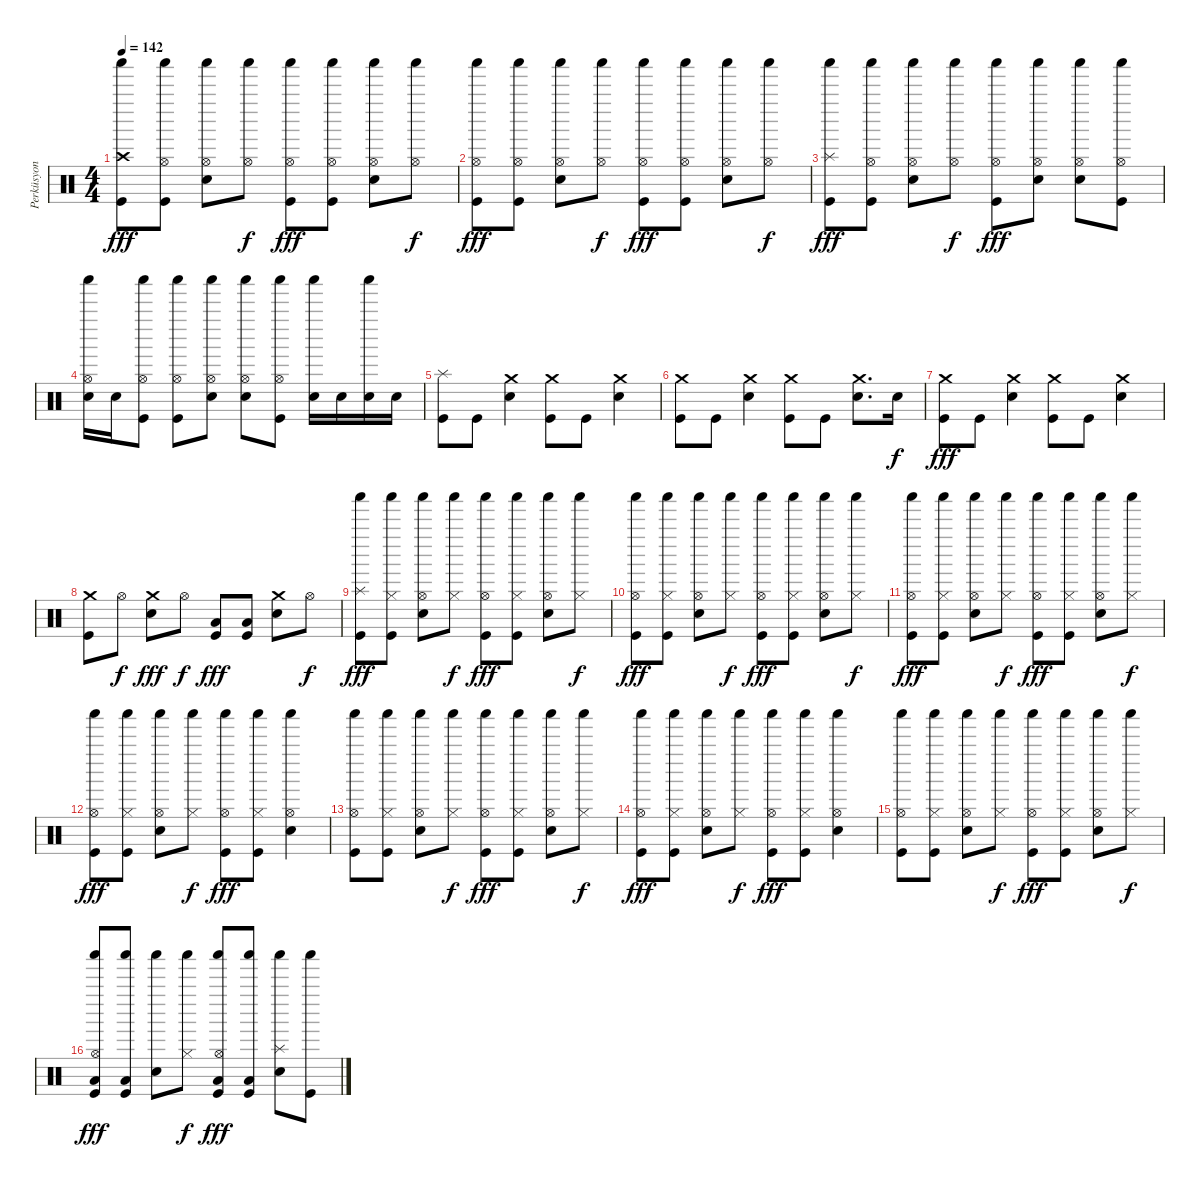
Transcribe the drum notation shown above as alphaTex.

\track ("Perküsyon" "Perküsyon") {instrument percussion}
\staff {score}
\articulation defaults
\ts (4 4)
\tempo 142
\clef neutral
\ks c
("Kick (hit)" "Crash high (hit)" "Shaker (hit)").8{dy fff} ("Kick (hit)" "Hi-Hat (open)" "Shaker (hit)").8 ("Snare (hit) 2" "Hi-Hat (open)" "Shaker (hit)").8 ("Hi-Hat (open)" "Shaker (hit)").8{dy f} ("Kick (hit)" "Hi-Hat (open)" "Shaker (hit)").8{dy fff} ("Kick (hit)" "Hi-Hat (open)" "Shaker (hit)").8 ("Snare (hit) 2" "Hi-Hat (open)" "Shaker (hit)").8 ("Hi-Hat (open)" "Shaker (hit)").8{dy f} |
("Kick (hit)" "Hi-Hat (open)" "Shaker (hit)").8{dy fff} ("Kick (hit)" "Hi-Hat (open)" "Shaker (hit)").8 ("Snare (hit) 2" "Hi-Hat (open)" "Shaker (hit)").8 ("Hi-Hat (open)" "Shaker (hit)").8{dy f} ("Kick (hit)" "Hi-Hat (open)" "Shaker (hit)").8{dy fff} ("Kick (hit)" "Hi-Hat (open)" "Shaker (hit)").8 ("Snare (hit) 2" "Hi-Hat (open)" "Shaker (hit)").8 ("Hi-Hat (open)" "Shaker (hit)").8{dy f} |
("Kick (hit)" "Splash (hit)" "Shaker (hit)").8{dy fff} ("Kick (hit)" "Hi-Hat (open)" "Shaker (hit)").8 ("Snare (hit) 2" "Hi-Hat (open)" "Shaker (hit)").8 ("Hi-Hat (open)" "Shaker (hit)").8{dy f} ("Kick (hit)" "Hi-Hat (open)" "Shaker (hit)").8{dy fff} ("Snare (hit) 2" "Hi-Hat (open)" "Shaker (hit)").8 ("Snare (hit) 2" "Hi-Hat (open)" "Shaker (hit)").8 ("Kick (hit)" "Hi-Hat (open)" "Shaker (hit)").8 |
("Snare (hit) 2" "Hi-Hat (open)" "Shaker (hit)").16 "Snare (hit) 2".16 ("Kick (hit)" "Hi-Hat (open)" "Shaker (hit)").8 ("Kick (hit)" "Hi-Hat (open)" "Shaker (hit)").8 ("Snare (hit) 2" "Hi-Hat (open)" "Shaker (hit)").8 ("Snare (hit) 2" "Hi-Hat (open)" "Shaker (hit)").8 ("Kick (hit)" "Hi-Hat (open)" "Shaker (hit)").8 ("Snare (hit) 2" "Shaker (hit)").16 "Snare (hit) 2".16 ("Snare (hit) 2" "Shaker (hit)").16 "Snare (hit) 2".16 |
("Kick (hit)" "Splash (hit)").8 "Kick (hit)".8 ("Snare (hit) 2" "Crash medium (hit)").4 ("Kick (hit)" "Crash medium (hit)").8 "Kick (hit)".8 ("Snare (hit) 2" "Crash medium (hit)").4 |
("Kick (hit)" "Crash medium (hit)").8 "Kick (hit)".8 ("Snare (hit) 2" "Crash medium (hit)").4 ("Kick (hit)" "Crash medium (hit)").8 "Kick (hit)".8 ("Snare (hit) 2" "Crash medium (hit)").8{d} "Snare (hit) 2".16{dy f} |
("Kick (hit)" "Crash medium (hit)").8{dy fff} "Kick (hit)".8 ("Snare (hit) 2" "Crash medium (hit)").4 ("Kick (hit)" "Crash medium (hit)").8 "Kick (hit)".8 ("Snare (hit) 2" "Crash medium (hit)").4 |
("Kick (hit)" "Crash medium (hit)").8 "Hi-Hat (open)".8{dy f} ("Snare (hit) 2" "Crash medium (hit)").8{dy fff} "Hi-Hat (open)".8{dy f} ("Kick (hit)" "Low Floor Tom (hit)").8{dy fff} ("Kick (hit)" "Low Floor Tom (hit)").8 ("Snare (hit) 2" "Crash medium (hit)").8 "Hi-Hat (open)".8{dy f} |
("Kick (hit)" "Splash (hit)" "Shaker (hit)").8{dy fff} ("Kick (hit)" "Hi-Hat (closed)" "Shaker (hit)").8 ("Snare (hit) 2" "Hi-Hat (open)" "Shaker (hit)").8 ("Hi-Hat (closed)" "Shaker (hit)").8{dy f} ("Kick (hit)" "Hi-Hat (open)" "Shaker (hit)").8{dy fff} ("Kick (hit)" "Hi-Hat (closed)" "Shaker (hit)").8 ("Snare (hit) 2" "Hi-Hat (open)" "Shaker (hit)").8 ("Hi-Hat (closed)" "Shaker (hit)").8{dy f} |
("Kick (hit)" "Hi-Hat (open)" "Shaker (hit)").8{dy fff} ("Kick (hit)" "Hi-Hat (closed)" "Shaker (hit)").8 ("Snare (hit) 2" "Hi-Hat (open)" "Shaker (hit)").8 ("Hi-Hat (closed)" "Shaker (hit)").8{dy f} ("Kick (hit)" "Hi-Hat (open)" "Shaker (hit)").8{dy fff} ("Kick (hit)" "Hi-Hat (closed)" "Shaker (hit)").8 ("Snare (hit) 2" "Hi-Hat (open)" "Shaker (hit)").8 ("Hi-Hat (closed)" "Shaker (hit)").8{dy f} |
("Kick (hit)" "Hi-Hat (open)" "Shaker (hit)").8{dy fff} ("Kick (hit)" "Hi-Hat (closed)" "Shaker (hit)").8 ("Snare (hit) 2" "Hi-Hat (open)" "Shaker (hit)").8 ("Hi-Hat (closed)" "Shaker (hit)").8{dy f} ("Kick (hit)" "Hi-Hat (open)" "Shaker (hit)").8{dy fff} ("Kick (hit)" "Hi-Hat (closed)" "Shaker (hit)").8 ("Snare (hit) 2" "Hi-Hat (open)" "Shaker (hit)").8 ("Hi-Hat (closed)" "Shaker (hit)").8{dy f} |
("Kick (hit)" "Hi-Hat (open)" "Shaker (hit)").8{dy fff} ("Kick (hit)" "Hi-Hat (closed)" "Shaker (hit)").8 ("Snare (hit) 2" "Hi-Hat (open)" "Shaker (hit)").8 ("Hi-Hat (closed)" "Shaker (hit)").8{dy f} ("Kick (hit)" "Hi-Hat (open)" "Shaker (hit)").8{dy fff} ("Kick (hit)" "Hi-Hat (closed)" "Shaker (hit)").8 ("Snare (hit) 2" "Hi-Hat (open)" "Shaker (hit)").4 |
("Kick (hit)" "Hi-Hat (open)" "Shaker (hit)").8 ("Kick (hit)" "Hi-Hat (closed)" "Shaker (hit)").8 ("Snare (hit) 2" "Hi-Hat (open)" "Shaker (hit)").8 ("Hi-Hat (closed)" "Shaker (hit)").8{dy f} ("Kick (hit)" "Hi-Hat (open)" "Shaker (hit)").8{dy fff} ("Kick (hit)" "Hi-Hat (closed)" "Shaker (hit)").8 ("Snare (hit) 2" "Hi-Hat (open)" "Shaker (hit)").8 ("Hi-Hat (closed)" "Shaker (hit)").8{dy f} |
("Kick (hit)" "Hi-Hat (open)" "Shaker (hit)").8{dy fff} ("Kick (hit)" "Hi-Hat (closed)" "Shaker (hit)").8 ("Snare (hit) 2" "Hi-Hat (open)" "Shaker (hit)").8 ("Hi-Hat (closed)" "Shaker (hit)").8{dy f} ("Kick (hit)" "Hi-Hat (open)" "Shaker (hit)").8{dy fff} ("Kick (hit)" "Hi-Hat (closed)" "Shaker (hit)").8 ("Snare (hit) 2" "Hi-Hat (open)" "Shaker (hit)").4 |
("Kick (hit)" "Hi-Hat (open)" "Shaker (hit)").8 ("Kick (hit)" "Hi-Hat (closed)" "Shaker (hit)").8 ("Snare (hit) 2" "Hi-Hat (open)" "Shaker (hit)").8 ("Hi-Hat (closed)" "Shaker (hit)").8{dy f} ("Kick (hit)" "Hi-Hat (open)" "Shaker (hit)").8{dy fff} ("Kick (hit)" "Hi-Hat (closed)" "Shaker (hit)").8 ("Snare (hit) 2" "Hi-Hat (open)" "Shaker (hit)").8 ("Hi-Hat (closed)" "Shaker (hit)").8{dy f} |
("Kick (hit)" "Hi-Hat (open)" "Low Floor Tom (hit)" "Shaker (hit)").8{dy fff} ("Kick (hit)" "Low Floor Tom (hit)" "Shaker (hit)").8 ("Snare (hit) 2" "Shaker (hit)").8 ("Hi-Hat (closed)" "Shaker (hit)").8{dy f} ("Kick (hit)" "Hi-Hat (open)" "Low Floor Tom (hit)" "Shaker (hit)").8{dy fff} ("Kick (hit)" "Low Floor Tom (hit)" "Shaker (hit)").8 ("Snare (hit) 2" "Splash (hit)" "Shaker (hit)").8 ("Kick (hit)" "Shaker (hit)").8
